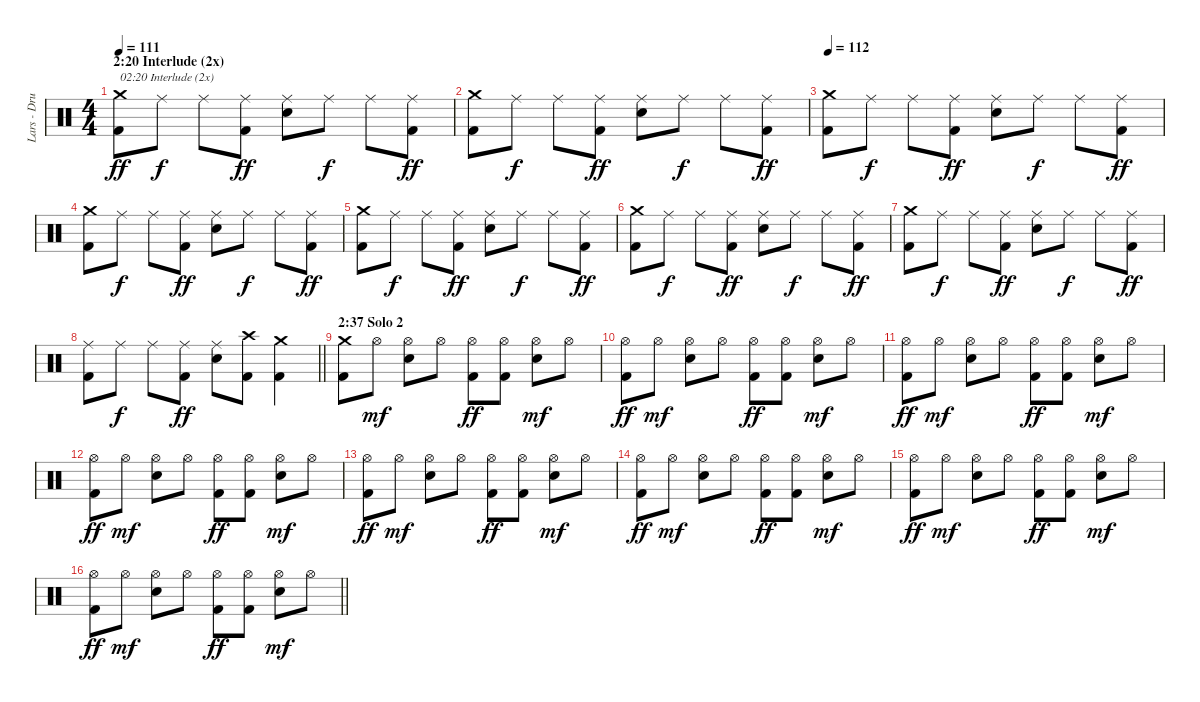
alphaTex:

\track ("Lars - Drums + tempi marker" "Lars - Dru") {instrument percussion}
\staff {score}
\articulation defaults
\ts (4 4)
\section ("" "2:20 Interlude (2x)")
\tempo 111
\clef neutral
\ks c
("Crash medium (hit)" "Kick (hit) 2").8{txt "02:20 Interlude (2x)" dy ff} "Ride (middle)".8{dy f} "Ride (middle)".8 ("Ride (middle)" "Kick (hit) 2").8{dy ff} ("Electric Snare (hit)" "Ride (middle)").8 "Ride (middle)".8{dy f} "Ride (middle)".8 ("Ride (middle)" "Kick (hit) 2").8{dy ff} |
("Crash medium (hit)" "Kick (hit) 2").8 "Ride (middle)".8{dy f} "Ride (middle)".8 ("Ride (middle)" "Kick (hit) 2").8{dy ff} ("Electric Snare (hit)" "Ride (middle)").8 "Ride (middle)".8{dy f} "Ride (middle)".8 ("Ride (middle)" "Kick (hit) 2").8{dy ff} |
\tempo 112
("Crash medium (hit)" "Kick (hit) 2").8 "Ride (middle)".8{dy f} "Ride (middle)".8 ("Ride (middle)" "Kick (hit) 2").8{dy ff} ("Electric Snare (hit)" "Ride (middle)").8 "Ride (middle)".8{dy f} "Ride (middle)".8 ("Ride (middle)" "Kick (hit) 2").8{dy ff} |
("Crash medium (hit)" "Kick (hit) 2").8 "Ride (middle)".8{dy f} "Ride (middle)".8 ("Ride (middle)" "Kick (hit) 2").8{dy ff} ("Electric Snare (hit)" "Ride (middle)").8 "Ride (middle)".8{dy f} "Ride (middle)".8 ("Ride (middle)" "Kick (hit) 2").8{dy ff} |
("Crash medium (hit)" "Kick (hit) 2").8 "Ride (middle)".8{dy f} "Ride (middle)".8 ("Ride (middle)" "Kick (hit) 2").8{dy ff} ("Electric Snare (hit)" "Ride (middle)").8 "Ride (middle)".8{dy f} "Ride (middle)".8 ("Ride (middle)" "Kick (hit) 2").8{dy ff} |
("Crash medium (hit)" "Kick (hit) 2").8 "Ride (middle)".8{dy f} "Ride (middle)".8 ("Ride (middle)" "Kick (hit) 2").8{dy ff} ("Electric Snare (hit)" "Ride (middle)").8 "Ride (middle)".8{dy f} "Ride (middle)".8 ("Ride (middle)" "Kick (hit) 2").8{dy ff} |
("Crash medium (hit)" "Kick (hit) 2").8 "Ride (middle)".8{dy f} "Ride (middle)".8 ("Ride (middle)" "Kick (hit) 2").8{dy ff} ("Electric Snare (hit)" "Ride (middle)").8 "Ride (middle)".8{dy f} "Ride (middle)".8 ("Ride (middle)" "Kick (hit) 2").8{dy ff} |
\barLineRight lightlight
("Ride (middle)" "Kick (hit) 2").8 "Ride (middle)".8{dy f} "Ride (middle)".8 ("Ride (middle)" "Kick (hit) 2").8{dy ff} ("Electric Snare (hit)" "Ride (middle)").8 ("Crash high (hit)" "Kick (hit) 2").8 ("Crash medium (hit)" "Kick (hit) 2").4 |
\section ("" "2:37 Solo 2")
("Crash medium (hit)" "Kick (hit) 2").8 "Hi-Hat (open)".8{dy mf} ("Electric Snare (hit)" "Hi-Hat (open)").8 "Hi-Hat (open)".8 ("Hi-Hat (open)" "Kick (hit) 2").8{dy ff} ("Hi-Hat (open)" "Kick (hit) 2").8 ("Electric Snare (hit)" "Hi-Hat (open)").8{dy mf} "Hi-Hat (open)".8 |
("Hi-Hat (open)" "Kick (hit) 2").8{dy ff} "Hi-Hat (open)".8{dy mf} ("Electric Snare (hit)" "Hi-Hat (open)").8 "Hi-Hat (open)".8 ("Hi-Hat (open)" "Kick (hit) 2").8{dy ff} ("Hi-Hat (open)" "Kick (hit) 2").8 ("Electric Snare (hit)" "Hi-Hat (open)").8{dy mf} "Hi-Hat (open)".8 |
("Hi-Hat (open)" "Kick (hit) 2").8{dy ff} "Hi-Hat (open)".8{dy mf} ("Electric Snare (hit)" "Hi-Hat (open)").8 "Hi-Hat (open)".8 ("Hi-Hat (open)" "Kick (hit) 2").8{dy ff} ("Hi-Hat (open)" "Kick (hit) 2").8 ("Electric Snare (hit)" "Hi-Hat (open)").8{dy mf} "Hi-Hat (open)".8 |
("Hi-Hat (open)" "Kick (hit) 2").8{dy ff} "Hi-Hat (open)".8{dy mf} ("Electric Snare (hit)" "Hi-Hat (open)").8 "Hi-Hat (open)".8 ("Hi-Hat (open)" "Kick (hit) 2").8{dy ff} ("Hi-Hat (open)" "Kick (hit) 2").8 ("Electric Snare (hit)" "Hi-Hat (open)").8{dy mf} "Hi-Hat (open)".8 |
("Hi-Hat (open)" "Kick (hit) 2").8{dy ff} "Hi-Hat (open)".8{dy mf} ("Electric Snare (hit)" "Hi-Hat (open)").8 "Hi-Hat (open)".8 ("Hi-Hat (open)" "Kick (hit) 2").8{dy ff} ("Hi-Hat (open)" "Kick (hit) 2").8 ("Electric Snare (hit)" "Hi-Hat (open)").8{dy mf} "Hi-Hat (open)".8 |
("Hi-Hat (open)" "Kick (hit) 2").8{dy ff} "Hi-Hat (open)".8{dy mf} ("Electric Snare (hit)" "Hi-Hat (open)").8 "Hi-Hat (open)".8 ("Hi-Hat (open)" "Kick (hit) 2").8{dy ff} ("Hi-Hat (open)" "Kick (hit) 2").8 ("Electric Snare (hit)" "Hi-Hat (open)").8{dy mf} "Hi-Hat (open)".8 |
("Hi-Hat (open)" "Kick (hit) 2").8{dy ff} "Hi-Hat (open)".8{dy mf} ("Electric Snare (hit)" "Hi-Hat (open)").8 "Hi-Hat (open)".8 ("Hi-Hat (open)" "Kick (hit) 2").8{dy ff} ("Hi-Hat (open)" "Kick (hit) 2").8 ("Electric Snare (hit)" "Hi-Hat (open)").8{dy mf} "Hi-Hat (open)".8 |
\barLineRight lightlight
("Hi-Hat (open)" "Kick (hit) 2").8{dy ff} "Hi-Hat (open)".8{dy mf} ("Electric Snare (hit)" "Hi-Hat (open)").8 "Hi-Hat (open)".8 ("Hi-Hat (open)" "Kick (hit) 2").8{dy ff} ("Hi-Hat (open)" "Kick (hit) 2").8 ("Electric Snare (hit)" "Hi-Hat (open)").8{dy mf} "Hi-Hat (open)".8
